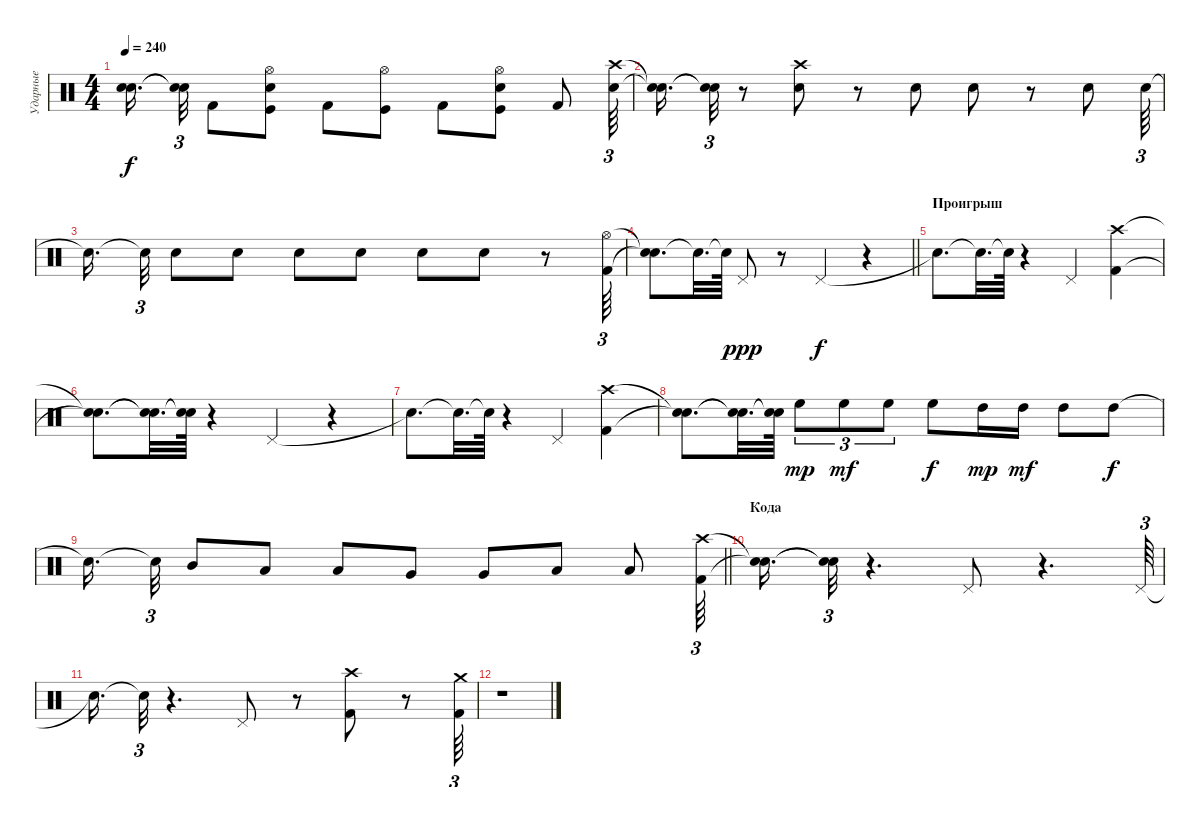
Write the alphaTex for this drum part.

\track ("Ударные" "Ударные") {instrument percussion}
\staff {score}
\articulation defaults
\ts (4 4)
\tempo 240
\clef neutral
\ks c
("Snare (hit)"{t} "Snare (hit)"{t}).16{d dy f} ("Snare (hit)"{t} "Snare (hit)"{t}).32{tu (3 2)} "Kick (hit) 2".8 ("Kick (hit)" "Snare (hit) 2" "Hi-Hat (open)").8 "Kick (hit) 2".8 ("Kick (hit)" "Hi-Hat (open)").8 "Kick (hit) 2".8 ("Snare (hit) 2" "Hi-Hat (open)" "Kick (hit)").8 "Kick (hit) 2".8 ("Snare (hit) 2" "Crash high (hit)").64{tu (3 2)} |
("Snare (hit)"{t} "Snare (hit)"{t}).16{d} ("Snare (hit)"{t} "Snare (hit)"{t}).32{tu (3 2)} r.8 ("Crash high (hit)" "Snare (hit) 2").8 r.8 "Snare (hit) 2".8 "Snare (hit) 2".8 r.8 "Snare (hit) 2".8 "Snare (hit) 2".64{tu (3 2)} |
"Snare (hit)"{t}.16{d} "Snare (hit)"{t}.32{tu (3 2)} "Snare (hit) 2".8 "Snare (hit) 2".8 "Snare (hit) 2".8 "Snare (hit) 2".8 "Snare (hit) 2".8 "Snare (hit) 2".8 r.8 ("Hi-Hat (open)" "Kick (hit) 2").64{tu (3 2)} |
\barLineRight lightlight
("Snare (hit)"{t} "Snare (hit)"{t}).8{d} "Snare (hit)"{t}.32{d} "Snare (hit)"{t}.64 "Pedal Hi-Hat (hit)".8{dy ppp} r.8 "Pedal Hi-Hat (hit)".4{dy f} r.4 |
\section ("" "Проигрыш")
"Snare (hit)"{t}.8{d} "Snare (hit)"{t}.32{d} "Snare (hit)"{t}.64 r.4 "Pedal Hi-Hat (hit)".4 ("Crash high (hit)" "Kick (hit) 2").4 |
("Snare (hit)"{t} "Snare (hit)"{t}).8{d} ("Snare (hit)"{t} "Snare (hit)"{t}).32{d} ("Snare (hit)"{t} "Snare (hit)"{t}).64 r.4 "Pedal Hi-Hat (hit)".4 r.4 |
"Snare (hit)"{t}.8{d} "Snare (hit)"{t}.32{d} "Snare (hit)"{t}.64 r.4 "Pedal Hi-Hat (hit)".4 ("Kick (hit) 2" "Crash high (hit)").4 |
("Snare (hit)"{t} "Snare (hit)"{t}).8{d} ("Snare (hit)"{t} "Snare (hit)"{t}).32{d} ("Snare (hit)"{t} "Snare (hit)"{t}).64 "High Floor Tom (hit)".8{tu (3 2) dy mp} "High Floor Tom (hit)".8{tu (3 2) dy mf} "High Floor Tom (hit)".8{tu (3 2)} "High Floor Tom (hit)".8{dy f} "High Tom (hit)".16{dy mp} "High Tom (hit)".16{dy mf} "High Tom (hit)".8 "High Tom (hit)".8{dy f} |
\barLineRight lightlight "Snare (hit)"{t}.16{d} "Snare (hit)"{t}.32{tu (3 2)} "Mid Tom (hit)".8 "Low Tom (hit)".8 "Low Tom (hit)".8 "Very Low Tom (hit)".8 "Very Low Tom (hit)".8 "Low Floor Tom (hit)".8 "Low Floor Tom (hit)".8
("Kick (hit) 2" "Crash high (hit)").64{tu (3 2)} |
\section ("" "Кода")
("Snare (hit)"{t} "Snare (hit)"{t}).16{d} ("Snare (hit)"{t} "Snare (hit)"{t}).32{tu (3 2)} r.4{d} "Pedal Hi-Hat (hit)".8 r.4{d} "Pedal Hi-Hat (hit)".64{tu (3 2)} |
"Snare (hit)"{t}.16{d} "Snare (hit)"{t}.32{tu (3 2)} r.4{d} "Pedal Hi-Hat (hit)".8 r.8 ("Kick (hit) 2" "Crash high (hit)").8 r.8 ("Kick (hit) 2" "Crash medium (hit)").64{tu (3 2)} |
r.1
